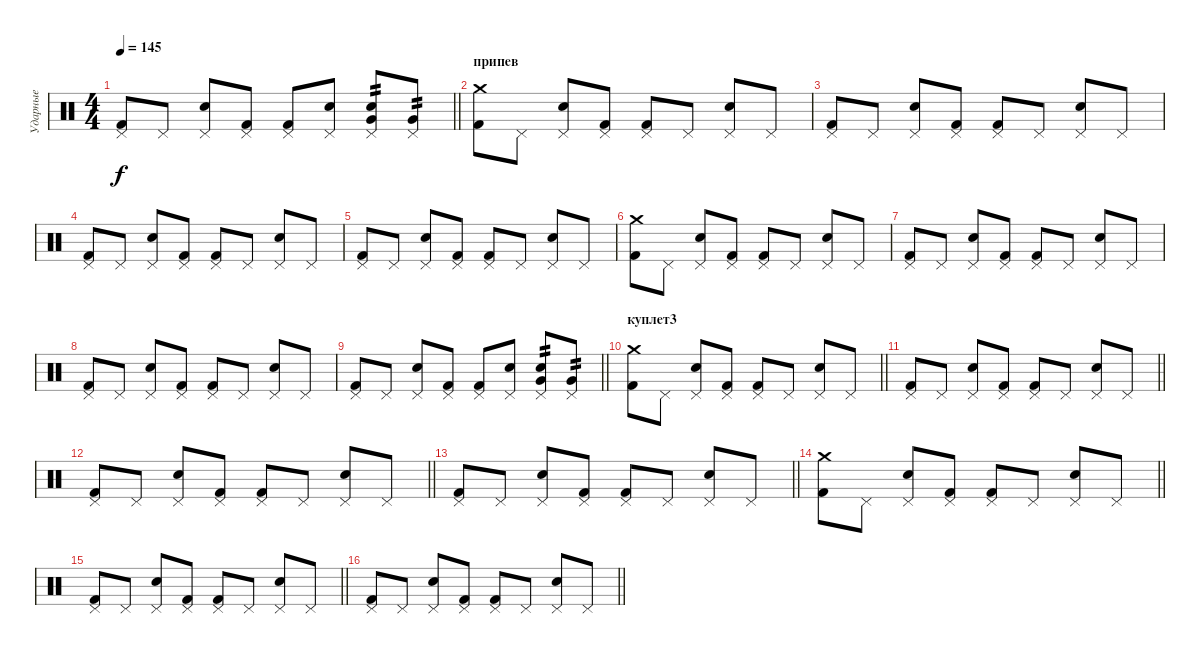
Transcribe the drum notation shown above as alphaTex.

\track ("Ударные" "Ударные") {instrument percussion}
\staff {score}
\articulation defaults
\ts (4 4)
\tempo 145
\clef neutral
\barLineRight lightlight
\ks c
("Pedal Hi-Hat (hit)" "Kick (hit) 2").8{dy f} "Pedal Hi-Hat (hit)".8 ("Pedal Hi-Hat (hit)" "Electric Snare (hit)").8 ("Pedal Hi-Hat (hit)" "Kick (hit) 2").8 ("Pedal Hi-Hat (hit)" "Kick (hit) 2").8 ("Pedal Hi-Hat (hit)" "Electric Snare (hit)").8 ("Pedal Hi-Hat (hit)" "Very Low Tom (hit)" "Electric Snare (hit)").8{tp 2} ("Pedal Hi-Hat (hit)" "Very Low Tom (hit)").8{tp 2} |
\section ("" "припев")
("Crash medium (hit)" "Kick (hit) 2").8 "Pedal Hi-Hat (hit)".8 ("Pedal Hi-Hat (hit)" "Electric Snare (hit)").8 ("Pedal Hi-Hat (hit)" "Kick (hit) 2").8 ("Pedal Hi-Hat (hit)" "Kick (hit) 2").8 "Pedal Hi-Hat (hit)".8 ("Pedal Hi-Hat (hit)" "Electric Snare (hit)").8 "Pedal Hi-Hat (hit)".8 |
("Pedal Hi-Hat (hit)" "Kick (hit) 2").8 "Pedal Hi-Hat (hit)".8 ("Pedal Hi-Hat (hit)" "Electric Snare (hit)").8 ("Pedal Hi-Hat (hit)" "Kick (hit) 2").8 ("Pedal Hi-Hat (hit)" "Kick (hit) 2").8 "Pedal Hi-Hat (hit)".8 ("Pedal Hi-Hat (hit)" "Electric Snare (hit)").8 "Pedal Hi-Hat (hit)".8 |
("Pedal Hi-Hat (hit)" "Kick (hit) 2").8 "Pedal Hi-Hat (hit)".8 ("Pedal Hi-Hat (hit)" "Electric Snare (hit)").8 ("Pedal Hi-Hat (hit)" "Kick (hit) 2").8 ("Pedal Hi-Hat (hit)" "Kick (hit) 2").8 "Pedal Hi-Hat (hit)".8 ("Pedal Hi-Hat (hit)" "Electric Snare (hit)").8 "Pedal Hi-Hat (hit)".8 |
("Pedal Hi-Hat (hit)" "Kick (hit) 2").8 "Pedal Hi-Hat (hit)".8 ("Pedal Hi-Hat (hit)" "Electric Snare (hit)").8 ("Pedal Hi-Hat (hit)" "Kick (hit) 2").8 ("Pedal Hi-Hat (hit)" "Kick (hit) 2").8 "Pedal Hi-Hat (hit)".8 ("Pedal Hi-Hat (hit)" "Electric Snare (hit)").8 "Pedal Hi-Hat (hit)".8 |
("Crash medium (hit)" "Kick (hit) 2").8 "Pedal Hi-Hat (hit)".8 ("Pedal Hi-Hat (hit)" "Electric Snare (hit)").8 ("Pedal Hi-Hat (hit)" "Kick (hit) 2").8 ("Pedal Hi-Hat (hit)" "Kick (hit) 2").8 "Pedal Hi-Hat (hit)".8 ("Pedal Hi-Hat (hit)" "Electric Snare (hit)").8 "Pedal Hi-Hat (hit)".8 |
("Pedal Hi-Hat (hit)" "Kick (hit) 2").8 "Pedal Hi-Hat (hit)".8 ("Pedal Hi-Hat (hit)" "Electric Snare (hit)").8 ("Pedal Hi-Hat (hit)" "Kick (hit) 2").8 ("Pedal Hi-Hat (hit)" "Kick (hit) 2").8 "Pedal Hi-Hat (hit)".8 ("Pedal Hi-Hat (hit)" "Electric Snare (hit)").8 "Pedal Hi-Hat (hit)".8 |
("Pedal Hi-Hat (hit)" "Kick (hit) 2").8 "Pedal Hi-Hat (hit)".8 ("Pedal Hi-Hat (hit)" "Electric Snare (hit)").8 ("Pedal Hi-Hat (hit)" "Kick (hit) 2").8 ("Pedal Hi-Hat (hit)" "Kick (hit) 2").8 "Pedal Hi-Hat (hit)".8 ("Pedal Hi-Hat (hit)" "Electric Snare (hit)").8 "Pedal Hi-Hat (hit)".8 |
\barLineRight lightlight
("Pedal Hi-Hat (hit)" "Kick (hit) 2").8 "Pedal Hi-Hat (hit)".8 ("Pedal Hi-Hat (hit)" "Electric Snare (hit)").8 ("Pedal Hi-Hat (hit)" "Kick (hit) 2").8 ("Pedal Hi-Hat (hit)" "Kick (hit) 2").8 ("Pedal Hi-Hat (hit)" "Electric Snare (hit)").8 ("Pedal Hi-Hat (hit)" "Very Low Tom (hit)" "Electric Snare (hit)").8{tp 2} ("Pedal Hi-Hat (hit)" "Very Low Tom (hit)").8{tp 2} |
\section ("" "куплет3")
\barLineRight lightlight
("Crash medium (hit)" "Kick (hit) 2").8 "Pedal Hi-Hat (hit)".8 ("Pedal Hi-Hat (hit)" "Electric Snare (hit)").8 ("Pedal Hi-Hat (hit)" "Kick (hit) 2").8 ("Pedal Hi-Hat (hit)" "Kick (hit) 2").8 "Pedal Hi-Hat (hit)".8 ("Pedal Hi-Hat (hit)" "Electric Snare (hit)").8 "Pedal Hi-Hat (hit)".8 |
\barLineRight lightlight
("Pedal Hi-Hat (hit)" "Kick (hit) 2").8 "Pedal Hi-Hat (hit)".8 ("Pedal Hi-Hat (hit)" "Electric Snare (hit)").8 ("Pedal Hi-Hat (hit)" "Kick (hit) 2").8 ("Pedal Hi-Hat (hit)" "Kick (hit) 2").8 "Pedal Hi-Hat (hit)".8 ("Pedal Hi-Hat (hit)" "Electric Snare (hit)").8 "Pedal Hi-Hat (hit)".8 |
\barLineRight lightlight
("Pedal Hi-Hat (hit)" "Kick (hit) 2").8 "Pedal Hi-Hat (hit)".8 ("Pedal Hi-Hat (hit)" "Electric Snare (hit)").8 ("Pedal Hi-Hat (hit)" "Kick (hit) 2").8 ("Pedal Hi-Hat (hit)" "Kick (hit) 2").8 "Pedal Hi-Hat (hit)".8 ("Pedal Hi-Hat (hit)" "Electric Snare (hit)").8 "Pedal Hi-Hat (hit)".8 |
\barLineRight lightlight
("Pedal Hi-Hat (hit)" "Kick (hit) 2").8 "Pedal Hi-Hat (hit)".8 ("Pedal Hi-Hat (hit)" "Electric Snare (hit)").8 ("Pedal Hi-Hat (hit)" "Kick (hit) 2").8 ("Pedal Hi-Hat (hit)" "Kick (hit) 2").8 "Pedal Hi-Hat (hit)".8 ("Pedal Hi-Hat (hit)" "Electric Snare (hit)").8 "Pedal Hi-Hat (hit)".8 |
\barLineRight lightlight
("Crash medium (hit)" "Kick (hit) 2").8 "Pedal Hi-Hat (hit)".8 ("Pedal Hi-Hat (hit)" "Electric Snare (hit)").8 ("Pedal Hi-Hat (hit)" "Kick (hit) 2").8 ("Pedal Hi-Hat (hit)" "Kick (hit) 2").8 "Pedal Hi-Hat (hit)".8 ("Pedal Hi-Hat (hit)" "Electric Snare (hit)").8 "Pedal Hi-Hat (hit)".8 |
\barLineRight lightlight
("Pedal Hi-Hat (hit)" "Kick (hit) 2").8 "Pedal Hi-Hat (hit)".8 ("Pedal Hi-Hat (hit)" "Electric Snare (hit)").8 ("Pedal Hi-Hat (hit)" "Kick (hit) 2").8 ("Pedal Hi-Hat (hit)" "Kick (hit) 2").8 "Pedal Hi-Hat (hit)".8 ("Pedal Hi-Hat (hit)" "Electric Snare (hit)").8 "Pedal Hi-Hat (hit)".8 |
\barLineRight lightlight
("Pedal Hi-Hat (hit)" "Kick (hit) 2").8 "Pedal Hi-Hat (hit)".8 ("Pedal Hi-Hat (hit)" "Electric Snare (hit)").8 ("Pedal Hi-Hat (hit)" "Kick (hit) 2").8 ("Pedal Hi-Hat (hit)" "Kick (hit) 2").8 "Pedal Hi-Hat (hit)".8 ("Pedal Hi-Hat (hit)" "Electric Snare (hit)").8 "Pedal Hi-Hat (hit)".8
